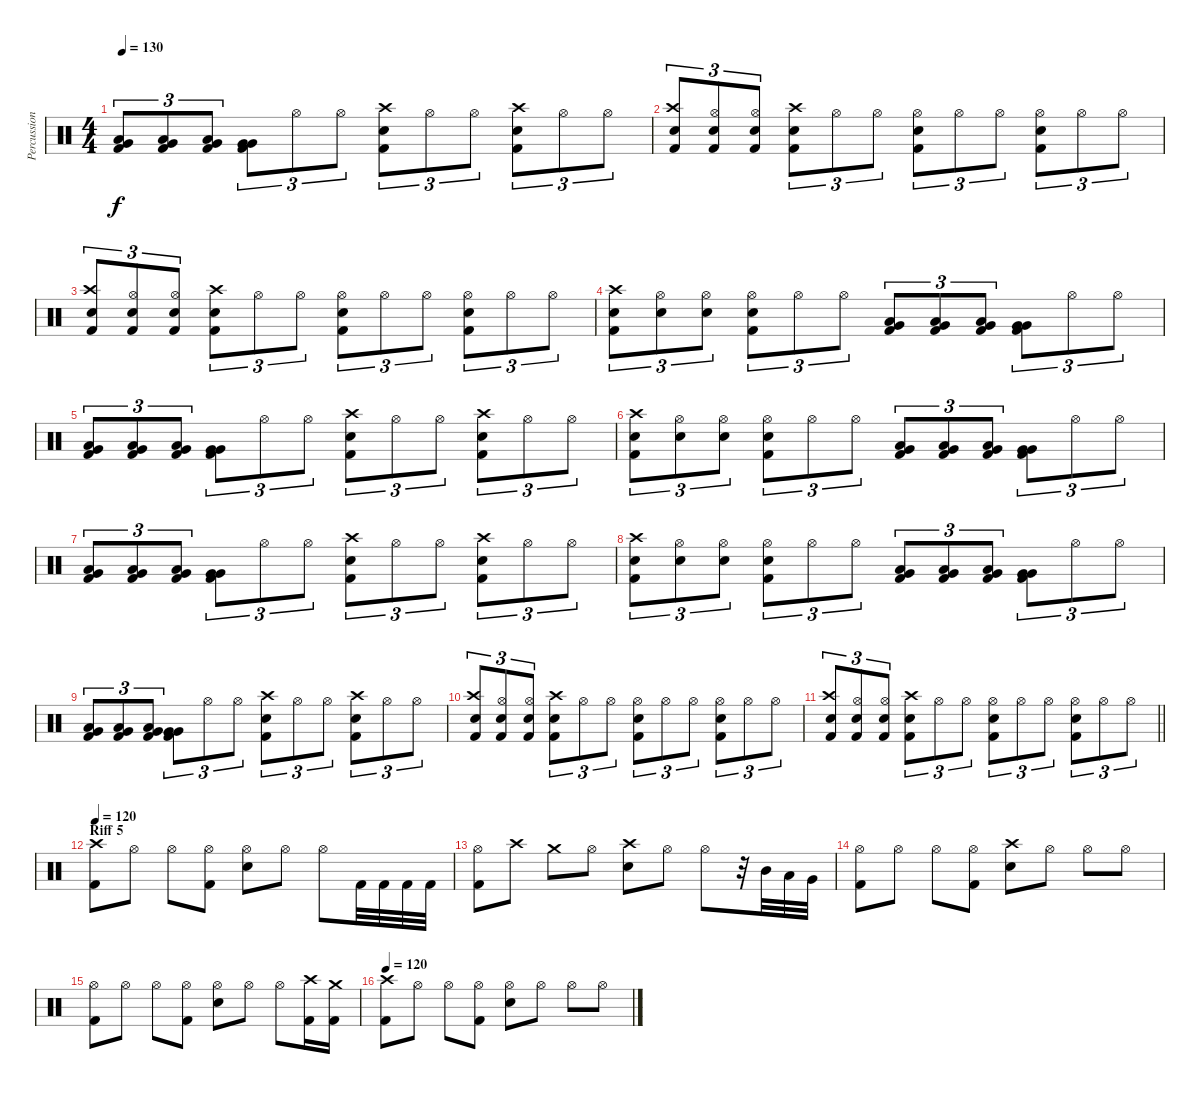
\track ("Percussion" "Percussion") {instrument percussion}
\staff {score}
\articulation defaults
\ts (4 4)
\tempo 130
\clef neutral
\ks c
("Kick (hit) 2" "Very Low Tom (hit)" "Low Tom (hit)").8{tu (3 2) dy f} ("Kick (hit) 2" "Very Low Tom (hit)" "Low Tom (hit)").8{tu (3 2)} ("Kick (hit) 2" "Very Low Tom (hit)" "Low Tom (hit)").8{tu (3 2)} ("Kick (hit) 2" "Very Low Tom (hit)" "Very Low Tom (hit)").8{tu (3 2)} "Hi-Hat (open)".8{tu (3 2)} "Hi-Hat (open)".8{tu (3 2)} ("Crash high (hit)" "Snare (hit) 2" "Kick (hit) 2").8{tu (3 2)} "Hi-Hat (open)".8{tu (3 2)} "Hi-Hat (open)".8{tu (3 2)} ("Crash high (hit)" "Snare (hit) 2" "Kick (hit) 2").8{tu (3 2)} "Hi-Hat (open)".8{tu (3 2)} "Hi-Hat (open)".8{tu (3 2)} |
("Crash high (hit)" "Snare (hit) 2" "Kick (hit) 2").8{tu (3 2)} ("Hi-Hat (open)" "Snare (hit) 2" "Kick (hit) 2").8{tu (3 2)} ("Hi-Hat (open)" "Snare (hit) 2" "Kick (hit) 2").8{tu (3 2)} ("Crash high (hit)" "Snare (hit) 2" "Kick (hit) 2").8{tu (3 2)} "Hi-Hat (open)".8{tu (3 2)} "Hi-Hat (open)".8{tu (3 2)} ("Hi-Hat (open)" "Snare (hit) 2" "Kick (hit) 2").8{tu (3 2)} "Hi-Hat (open)".8{tu (3 2)} "Hi-Hat (open)".8{tu (3 2)} ("Hi-Hat (open)" "Snare (hit) 2" "Kick (hit) 2").8{tu (3 2)} "Hi-Hat (open)".8{tu (3 2)} "Hi-Hat (open)".8{tu (3 2)} |
("Crash high (hit)" "Snare (hit) 2" "Kick (hit) 2").8{tu (3 2)} ("Hi-Hat (open)" "Snare (hit) 2" "Kick (hit) 2").8{tu (3 2)} ("Hi-Hat (open)" "Snare (hit) 2" "Kick (hit) 2").8{tu (3 2)} ("Crash high (hit)" "Snare (hit) 2" "Kick (hit) 2").8{tu (3 2)} "Hi-Hat (open)".8{tu (3 2)} "Hi-Hat (open)".8{tu (3 2)} ("Hi-Hat (open)" "Snare (hit) 2" "Kick (hit) 2").8{tu (3 2)} "Hi-Hat (open)".8{tu (3 2)} "Hi-Hat (open)".8{tu (3 2)} ("Hi-Hat (open)" "Snare (hit) 2" "Kick (hit) 2").8{tu (3 2)} "Hi-Hat (open)".8{tu (3 2)} "Hi-Hat (open)".8{tu (3 2)} |
("Crash high (hit)" "Snare (hit) 2" "Kick (hit) 2").8{tu (3 2)} ("Hi-Hat (open)" "Snare (hit) 2").8{tu (3 2)} ("Hi-Hat (open)" "Snare (hit) 2").8{tu (3 2)} ("Hi-Hat (open)" "Snare (hit) 2" "Kick (hit) 2").8{tu (3 2)} "Hi-Hat (open)".8{tu (3 2)} "Hi-Hat (open)".8{tu (3 2)} ("Kick (hit) 2" "Very Low Tom (hit)" "Low Tom (hit)").8{tu (3 2)} ("Kick (hit) 2" "Very Low Tom (hit)" "Low Tom (hit)").8{tu (3 2)} ("Kick (hit) 2" "Very Low Tom (hit)" "Low Tom (hit)").8{tu (3 2)} ("Kick (hit) 2" "Very Low Tom (hit)" "Very Low Tom (hit)").8{tu (3 2)} "Hi-Hat (open)".8{tu (3 2)} "Hi-Hat (open)".8{tu (3 2)} |
("Kick (hit) 2" "Very Low Tom (hit)" "Low Tom (hit)").8{tu (3 2)} ("Kick (hit) 2" "Very Low Tom (hit)" "Low Tom (hit)").8{tu (3 2)} ("Kick (hit) 2" "Very Low Tom (hit)" "Low Tom (hit)").8{tu (3 2)} ("Kick (hit) 2" "Very Low Tom (hit)" "Very Low Tom (hit)").8{tu (3 2)} "Hi-Hat (open)".8{tu (3 2)} "Hi-Hat (open)".8{tu (3 2)} ("Crash high (hit)" "Snare (hit) 2" "Kick (hit) 2").8{tu (3 2)} "Hi-Hat (open)".8{tu (3 2)} "Hi-Hat (open)".8{tu (3 2)} ("Crash high (hit)" "Snare (hit) 2" "Kick (hit) 2").8{tu (3 2)} "Hi-Hat (open)".8{tu (3 2)} "Hi-Hat (open)".8{tu (3 2)} |
("Crash high (hit)" "Snare (hit) 2" "Kick (hit) 2").8{tu (3 2)} ("Hi-Hat (open)" "Snare (hit) 2").8{tu (3 2)} ("Hi-Hat (open)" "Snare (hit) 2").8{tu (3 2)} ("Hi-Hat (open)" "Snare (hit) 2" "Kick (hit) 2").8{tu (3 2)} "Hi-Hat (open)".8{tu (3 2)} "Hi-Hat (open)".8{tu (3 2)} ("Kick (hit) 2" "Very Low Tom (hit)" "Low Tom (hit)").8{tu (3 2)} ("Kick (hit) 2" "Very Low Tom (hit)" "Low Tom (hit)").8{tu (3 2)} ("Kick (hit) 2" "Very Low Tom (hit)" "Low Tom (hit)").8{tu (3 2)} ("Kick (hit) 2" "Very Low Tom (hit)" "Very Low Tom (hit)").8{tu (3 2)} "Hi-Hat (open)".8{tu (3 2)} "Hi-Hat (open)".8{tu (3 2)} |
("Kick (hit) 2" "Very Low Tom (hit)" "Low Tom (hit)").8{tu (3 2)} ("Kick (hit) 2" "Very Low Tom (hit)" "Low Tom (hit)").8{tu (3 2)} ("Kick (hit) 2" "Very Low Tom (hit)" "Low Tom (hit)").8{tu (3 2)} ("Kick (hit) 2" "Very Low Tom (hit)" "Very Low Tom (hit)").8{tu (3 2)} "Hi-Hat (open)".8{tu (3 2)} "Hi-Hat (open)".8{tu (3 2)} ("Crash high (hit)" "Snare (hit) 2" "Kick (hit) 2").8{tu (3 2)} "Hi-Hat (open)".8{tu (3 2)} "Hi-Hat (open)".8{tu (3 2)} ("Crash high (hit)" "Snare (hit) 2" "Kick (hit) 2").8{tu (3 2)} "Hi-Hat (open)".8{tu (3 2)} "Hi-Hat (open)".8{tu (3 2)} |
("Crash high (hit)" "Snare (hit) 2" "Kick (hit) 2").8{tu (3 2)} ("Hi-Hat (open)" "Snare (hit) 2").8{tu (3 2)} ("Hi-Hat (open)" "Snare (hit) 2").8{tu (3 2)} ("Hi-Hat (open)" "Snare (hit) 2" "Kick (hit) 2").8{tu (3 2)} "Hi-Hat (open)".8{tu (3 2)} "Hi-Hat (open)".8{tu (3 2)} ("Kick (hit) 2" "Very Low Tom (hit)" "Low Tom (hit)").8{tu (3 2)} ("Kick (hit) 2" "Very Low Tom (hit)" "Low Tom (hit)").8{tu (3 2)} ("Kick (hit) 2" "Very Low Tom (hit)" "Low Tom (hit)").8{tu (3 2)} ("Kick (hit) 2" "Very Low Tom (hit)" "Very Low Tom (hit)").8{tu (3 2)} "Hi-Hat (open)".8{tu (3 2)} "Hi-Hat (open)".8{tu (3 2)} |
("Kick (hit) 2" "Very Low Tom (hit)" "Low Tom (hit)").8{tu (3 2)} ("Kick (hit) 2" "Very Low Tom (hit)" "Low Tom (hit)").8{tu (3 2)} ("Kick (hit) 2" "Very Low Tom (hit)" "Low Tom (hit)").8{tu (3 2)} ("Kick (hit) 2" "Very Low Tom (hit)" "Very Low Tom (hit)").8{tu (3 2)} "Hi-Hat (open)".8{tu (3 2)} "Hi-Hat (open)".8{tu (3 2)} ("Crash high (hit)" "Snare (hit) 2" "Kick (hit) 2").8{tu (3 2)} "Hi-Hat (open)".8{tu (3 2)} "Hi-Hat (open)".8{tu (3 2)} ("Crash high (hit)" "Snare (hit) 2" "Kick (hit) 2").8{tu (3 2)} "Hi-Hat (open)".8{tu (3 2)} "Hi-Hat (open)".8{tu (3 2)} |
("Crash high (hit)" "Snare (hit) 2" "Kick (hit) 2").8{tu (3 2)} ("Hi-Hat (open)" "Snare (hit) 2" "Kick (hit) 2").8{tu (3 2)} ("Hi-Hat (open)" "Snare (hit) 2" "Kick (hit) 2").8{tu (3 2)} ("Crash high (hit)" "Snare (hit) 2" "Kick (hit) 2").8{tu (3 2)} "Hi-Hat (open)".8{tu (3 2)} "Hi-Hat (open)".8{tu (3 2)} ("Hi-Hat (open)" "Snare (hit) 2" "Kick (hit) 2").8{tu (3 2)} "Hi-Hat (open)".8{tu (3 2)} "Hi-Hat (open)".8{tu (3 2)} ("Hi-Hat (open)" "Snare (hit) 2" "Kick (hit) 2").8{tu (3 2)} "Hi-Hat (open)".8{tu (3 2)} "Hi-Hat (open)".8{tu (3 2)} |
\barLineRight lightlight
("Crash high (hit)" "Snare (hit) 2" "Kick (hit) 2").8{tu (3 2)} ("Hi-Hat (open)" "Snare (hit) 2" "Kick (hit) 2").8{tu (3 2)} ("Hi-Hat (open)" "Snare (hit) 2" "Kick (hit) 2").8{tu (3 2)} ("Crash high (hit)" "Snare (hit) 2" "Kick (hit) 2").8{tu (3 2)} "Hi-Hat (open)".8{tu (3 2)} "Hi-Hat (open)".8{tu (3 2)} ("Hi-Hat (open)" "Snare (hit) 2" "Kick (hit) 2").8{tu (3 2)} "Hi-Hat (open)".8{tu (3 2)} "Hi-Hat (open)".8{tu (3 2)} ("Hi-Hat (open)" "Snare (hit) 2" "Kick (hit) 2").8{tu (3 2)} "Hi-Hat (open)".8{tu (3 2)} "Hi-Hat (open)".8{tu (3 2)} |
\section ("" "Riff 5")
\tempo 120
("Crash high (hit)" "Kick (hit) 2").8 "Hi-Hat (open)".8 "Hi-Hat (open)".8 ("Hi-Hat (open)" "Kick (hit) 2").8 ("Hi-Hat (open)" "Snare (hit) 2").8 "Hi-Hat (open)".8 "Hi-Hat (open)".8 "Kick (hit) 2".32 "Kick (hit) 2".32 "Kick (hit) 2".32 "Kick (hit) 2".32 |
("Hi-Hat (open)" "Kick (hit) 2").8 "Crash high (hit)".8 "Crash medium (hit)".8 "Hi-Hat (open)".8 ("Crash high (hit)" "Snare (hit) 2").8 "Hi-Hat (open)".8 "Hi-Hat (open)".8 r.32 "Mid Tom (hit)".32 "Low Tom (hit)".32 "Very Low Tom (hit)".32 |
("Hi-Hat (open)" "Kick (hit) 2").8 "Hi-Hat (open)".8 "Hi-Hat (open)".8 ("Hi-Hat (open)" "Kick (hit) 2").8 ("Crash high (hit)" "Snare (hit) 2").8 "Hi-Hat (open)".8 "Hi-Hat (open)".8 "Hi-Hat (open)".8 |
("Hi-Hat (open)" "Kick (hit) 2").8 "Hi-Hat (open)".8 "Hi-Hat (open)".8 ("Hi-Hat (open)" "Kick (hit) 2").8 ("Hi-Hat (open)" "Snare (hit) 2").8 "Hi-Hat (open)".8 "Hi-Hat (open)".8 ("Crash high (hit)" "Kick (hit) 2").16 ("Crash medium (hit)" "Kick (hit) 2").16 |
\tempo 120
("Crash high (hit)" "Kick (hit) 2").8 "Hi-Hat (open)".8 "Hi-Hat (open)".8 ("Hi-Hat (open)" "Kick (hit) 2").8 ("Hi-Hat (open)" "Snare (hit) 2").8 "Hi-Hat (open)".8 "Hi-Hat (open)".8 "Hi-Hat (open)".8
